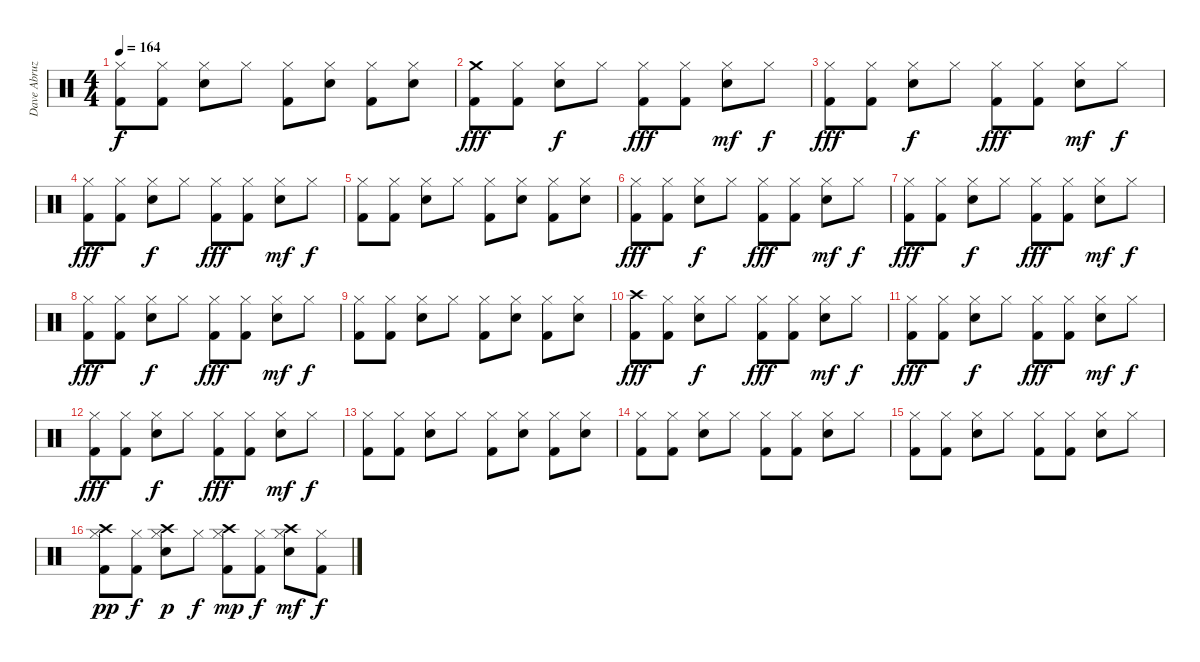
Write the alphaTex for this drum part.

\track ("Dave Abruzzese" "Dave Abruz") {instrument percussion}
\staff {score}
\articulation defaults
\ts (4 4)
\tempo 164
\clef neutral
\ks c
("Kick (hit) 2" "Hi-Hat (closed)").8{dy f} ("Kick (hit) 2" "Hi-Hat (closed)").8 ("Electric Snare (hit)" "Hi-Hat (closed)").8 "Hi-Hat (closed)".8 ("Kick (hit) 2" "Hi-Hat (closed)").8 ("Electric Snare (hit)" "Hi-Hat (closed)").8 ("Kick (hit) 2" "Hi-Hat (closed)").8 ("Electric Snare (hit)" "Hi-Hat (closed)").8 |
("Kick (hit) 2" "Crash medium (hit)").8{dy fff} ("Kick (hit) 2" "Hi-Hat (closed)").8 ("Electric Snare (hit)" "Hi-Hat (closed)").8{dy f} "Hi-Hat (closed)".8 ("Kick (hit) 2" "Hi-Hat (closed)").8{dy fff} ("Kick (hit) 2" "Hi-Hat (closed)").8 ("Electric Snare (hit)" "Hi-Hat (closed)").8{dy mf} "Hi-Hat (closed)".8{dy f} |
("Kick (hit) 2" "Hi-Hat (closed)").8{dy fff} ("Kick (hit) 2" "Hi-Hat (closed)").8 ("Electric Snare (hit)" "Hi-Hat (closed)").8{dy f} "Hi-Hat (closed)".8 ("Kick (hit) 2" "Hi-Hat (closed)").8{dy fff} ("Kick (hit) 2" "Hi-Hat (closed)").8 ("Electric Snare (hit)" "Hi-Hat (closed)").8{dy mf} "Hi-Hat (closed)".8{dy f} |
("Kick (hit) 2" "Hi-Hat (closed)").8{dy fff} ("Kick (hit) 2" "Hi-Hat (closed)").8 ("Electric Snare (hit)" "Hi-Hat (closed)").8{dy f} "Hi-Hat (closed)".8 ("Kick (hit) 2" "Hi-Hat (closed)").8{dy fff} ("Kick (hit) 2" "Hi-Hat (closed)").8 ("Electric Snare (hit)" "Hi-Hat (closed)").8{dy mf} "Hi-Hat (closed)".8{dy f} |
("Kick (hit) 2" "Hi-Hat (closed)").8 ("Kick (hit) 2" "Hi-Hat (closed)").8 ("Electric Snare (hit)" "Hi-Hat (closed)").8 "Hi-Hat (closed)".8 ("Kick (hit) 2" "Hi-Hat (closed)").8 ("Electric Snare (hit)" "Hi-Hat (closed)").8 ("Kick (hit) 2" "Hi-Hat (closed)").8 ("Electric Snare (hit)" "Hi-Hat (closed)").8 |
("Kick (hit) 2" "Hi-Hat (closed)").8{dy fff} ("Kick (hit) 2" "Hi-Hat (closed)").8 ("Electric Snare (hit)" "Hi-Hat (closed)").8{dy f} "Hi-Hat (closed)".8 ("Kick (hit) 2" "Hi-Hat (closed)").8{dy fff} ("Kick (hit) 2" "Hi-Hat (closed)").8 ("Electric Snare (hit)" "Hi-Hat (closed)").8{dy mf} "Hi-Hat (closed)".8{dy f} |
("Kick (hit) 2" "Hi-Hat (closed)").8{dy fff} ("Kick (hit) 2" "Hi-Hat (closed)").8 ("Electric Snare (hit)" "Hi-Hat (closed)").8{dy f} "Hi-Hat (closed)".8 ("Kick (hit) 2" "Hi-Hat (closed)").8{dy fff} ("Kick (hit) 2" "Hi-Hat (closed)").8 ("Electric Snare (hit)" "Hi-Hat (closed)").8{dy mf} "Hi-Hat (closed)".8{dy f} |
("Kick (hit) 2" "Hi-Hat (closed)").8{dy fff} ("Kick (hit) 2" "Hi-Hat (closed)").8 ("Electric Snare (hit)" "Hi-Hat (closed)").8{dy f} "Hi-Hat (closed)".8 ("Kick (hit) 2" "Hi-Hat (closed)").8{dy fff} ("Kick (hit) 2" "Hi-Hat (closed)").8 ("Electric Snare (hit)" "Hi-Hat (closed)").8{dy mf} "Hi-Hat (closed)".8{dy f} |
("Kick (hit) 2" "Hi-Hat (closed)").8 ("Kick (hit) 2" "Hi-Hat (closed)").8 ("Electric Snare (hit)" "Hi-Hat (closed)").8 "Hi-Hat (closed)".8 ("Kick (hit) 2" "Hi-Hat (closed)").8 ("Electric Snare (hit)" "Hi-Hat (closed)").8 ("Kick (hit) 2" "Hi-Hat (closed)").8 ("Electric Snare (hit)" "Hi-Hat (closed)").8 |
("Kick (hit) 2" "Crash high (hit)").8{dy fff} ("Kick (hit) 2" "Hi-Hat (closed)").8 ("Electric Snare (hit)" "Hi-Hat (closed)").8{dy f} "Hi-Hat (closed)".8 ("Kick (hit) 2" "Hi-Hat (closed)").8{dy fff} ("Kick (hit) 2" "Hi-Hat (closed)").8 ("Electric Snare (hit)" "Hi-Hat (closed)").8{dy mf} "Hi-Hat (closed)".8{dy f} |
("Kick (hit) 2" "Hi-Hat (closed)").8{dy fff} ("Kick (hit) 2" "Hi-Hat (closed)").8 ("Electric Snare (hit)" "Hi-Hat (closed)").8{dy f} "Hi-Hat (closed)".8 ("Kick (hit) 2" "Hi-Hat (closed)").8{dy fff} ("Kick (hit) 2" "Hi-Hat (closed)").8 ("Electric Snare (hit)" "Hi-Hat (closed)").8{dy mf} "Hi-Hat (closed)".8{dy f} |
("Kick (hit) 2" "Hi-Hat (closed)").8{dy fff} ("Kick (hit) 2" "Hi-Hat (closed)").8 ("Electric Snare (hit)" "Hi-Hat (closed)").8{dy f} "Hi-Hat (closed)".8 ("Kick (hit) 2" "Hi-Hat (closed)").8{dy fff} ("Kick (hit) 2" "Hi-Hat (closed)").8 ("Electric Snare (hit)" "Hi-Hat (closed)").8{dy mf} "Hi-Hat (closed)".8{dy f} |
("Kick (hit) 2" "Hi-Hat (closed)").8 ("Kick (hit) 2" "Hi-Hat (closed)").8 ("Electric Snare (hit)" "Hi-Hat (closed)").8 "Hi-Hat (closed)".8 ("Kick (hit) 2" "Hi-Hat (closed)").8 ("Electric Snare (hit)" "Hi-Hat (closed)").8 ("Kick (hit) 2" "Hi-Hat (closed)").8 ("Electric Snare (hit)" "Hi-Hat (closed)").8 |
("Kick (hit) 2" "Hi-Hat (closed)").8 ("Kick (hit) 2" "Hi-Hat (closed)").8 ("Electric Snare (hit)" "Hi-Hat (closed)").8 "Hi-Hat (closed)".8 ("Kick (hit) 2" "Hi-Hat (closed)").8 ("Kick (hit) 2" "Hi-Hat (closed)").8 ("Electric Snare (hit)" "Hi-Hat (closed)").8 "Hi-Hat (closed)".8 |
("Kick (hit) 2" "Hi-Hat (closed)").8 ("Kick (hit) 2" "Hi-Hat (closed)").8 ("Electric Snare (hit)" "Hi-Hat (closed)").8 "Hi-Hat (closed)".8 ("Kick (hit) 2" "Hi-Hat (closed)").8 ("Kick (hit) 2" "Hi-Hat (closed)").8 ("Electric Snare (hit)" "Hi-Hat (closed)").8 "Hi-Hat (closed)".8 |
("Crash high (hit)" "Kick (hit) 2" "Hi-Hat (closed)").8{dy pp} ("Kick (hit) 2" "Hi-Hat (closed)").8{dy f} ("Crash high (hit)" "Electric Snare (hit)" "Hi-Hat (closed)").8{dy p} "Hi-Hat (closed)".8{dy f} ("Crash high (hit)" "Kick (hit) 2" "Hi-Hat (closed)").8{dy mp} ("Kick (hit) 2" "Hi-Hat (closed)").8{dy f} ("Crash high (hit)" "Electric Snare (hit)" "Hi-Hat (closed)").8{dy mf} ("Kick (hit) 2" "Hi-Hat (closed)").8{dy f}
